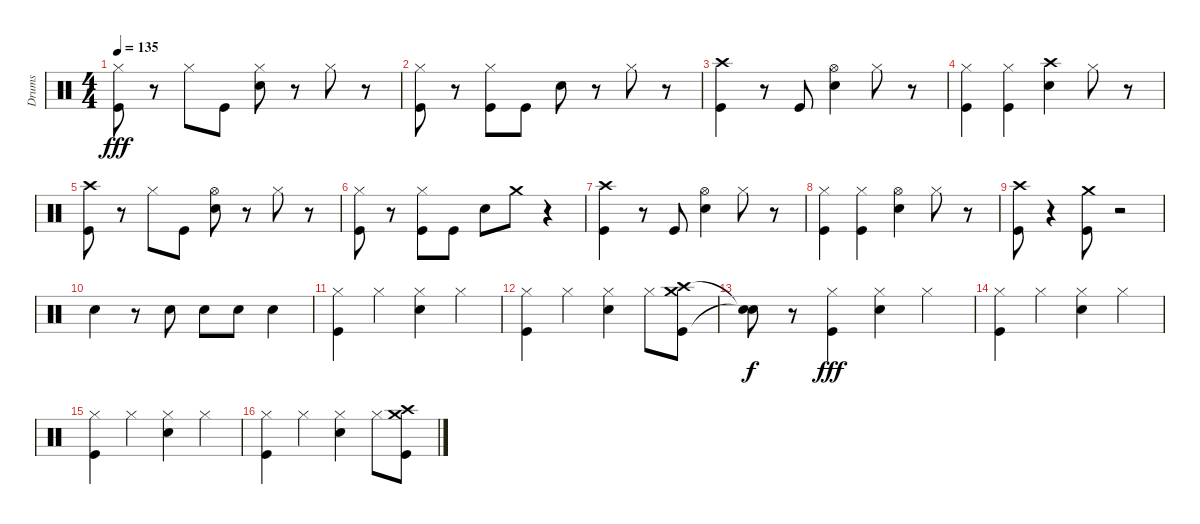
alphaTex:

\track ("Drums" "Drums") {instrument percussion}
\staff {score}
\articulation defaults
\ts (4 4)
\tempo 135
\clef neutral
\ks c
("Hi-Hat (closed)" "Kick (hit)").8{dy fff} r.8 "Hi-Hat (closed)".8 "Kick (hit)".8 ("Hi-Hat (closed)" "Snare (hit) 2").8 r.8 "Hi-Hat (closed)".8 r.8 |
("Hi-Hat (closed)" "Kick (hit)").8 r.8 ("Hi-Hat (closed)" "Kick (hit)").8 "Kick (hit)".8 "Snare (hit) 2".8 r.8 "Hi-Hat (closed)".8 r.8 |
("Kick (hit)" "Crash high (hit)").4 r.8 "Kick (hit)".8 ("Hi-Hat (open)" "Snare (hit) 2").4 "Hi-Hat (closed)".8 r.8 |
("Hi-Hat (closed)" "Kick (hit)").4 ("Hi-Hat (closed)" "Kick (hit)").4 ("Crash high (hit)" "Snare (hit) 2").4 "Hi-Hat (closed)".8 r.8 |
("Kick (hit)" "Crash high (hit)").8 r.8 "Hi-Hat (closed)".8 "Kick (hit)".8 ("Hi-Hat (open)" "Snare (hit) 2").8 r.8 "Hi-Hat (closed)".8 r.8 |
("Hi-Hat (closed)" "Kick (hit)").8 r.8 ("Hi-Hat (closed)" "Kick (hit)").8 "Kick (hit)".8 "Snare (hit) 2".8 "Crash medium (hit)".8 r.4 |
("Kick (hit)" "Crash high (hit)").4 r.8 "Kick (hit)".8 ("Hi-Hat (open)" "Snare (hit) 2").4 "Hi-Hat (closed)".8 r.8 |
("Hi-Hat (closed)" "Kick (hit)").4 ("Hi-Hat (closed)" "Kick (hit)").4 ("Hi-Hat (open)" "Snare (hit) 2").4 "Hi-Hat (closed)".8 r.8 |
("Kick (hit)" "Crash high (hit)").8 r.4 ("Crash medium (hit)" "Kick (hit)").8 r.2 |
"Snare (hit) 2".4 r.8 "Snare (hit) 2".8 "Snare (hit) 2".8 "Snare (hit) 2".8 "Snare (hit) 2".4 |
("Kick (hit)" "Hi-Hat (closed)").4 "Hi-Hat (closed)".4 ("Snare (hit) 2" "Hi-Hat (closed)").4 "Hi-Hat (closed)".4 |
("Kick (hit)" "Hi-Hat (closed)").4 "Hi-Hat (closed)".4 ("Snare (hit) 2" "Hi-Hat (closed)").4 "Hi-Hat (closed)".8 ("Crash high (hit)" "Kick (hit)" "Crash medium (hit)").8 |
("Snare (hit)"{t} "Snare (hit)"{t}).8{dy f} r.8 ("Kick (hit)" "Hi-Hat (closed)").4{dy fff} ("Snare (hit) 2" "Hi-Hat (closed)").4 "Hi-Hat (closed)".4 |
("Kick (hit)" "Hi-Hat (closed)").4 "Hi-Hat (closed)".4 ("Snare (hit) 2" "Hi-Hat (closed)").4 "Hi-Hat (closed)".4 |
("Kick (hit)" "Hi-Hat (closed)").4 "Hi-Hat (closed)".4 ("Snare (hit) 2" "Hi-Hat (closed)").4 "Hi-Hat (closed)".4 |
("Kick (hit)" "Hi-Hat (closed)").4 "Hi-Hat (closed)".4 ("Snare (hit) 2" "Hi-Hat (closed)").4 "Hi-Hat (closed)".8 ("Crash medium (hit)" "Crash high (hit)" "Kick (hit)").8
